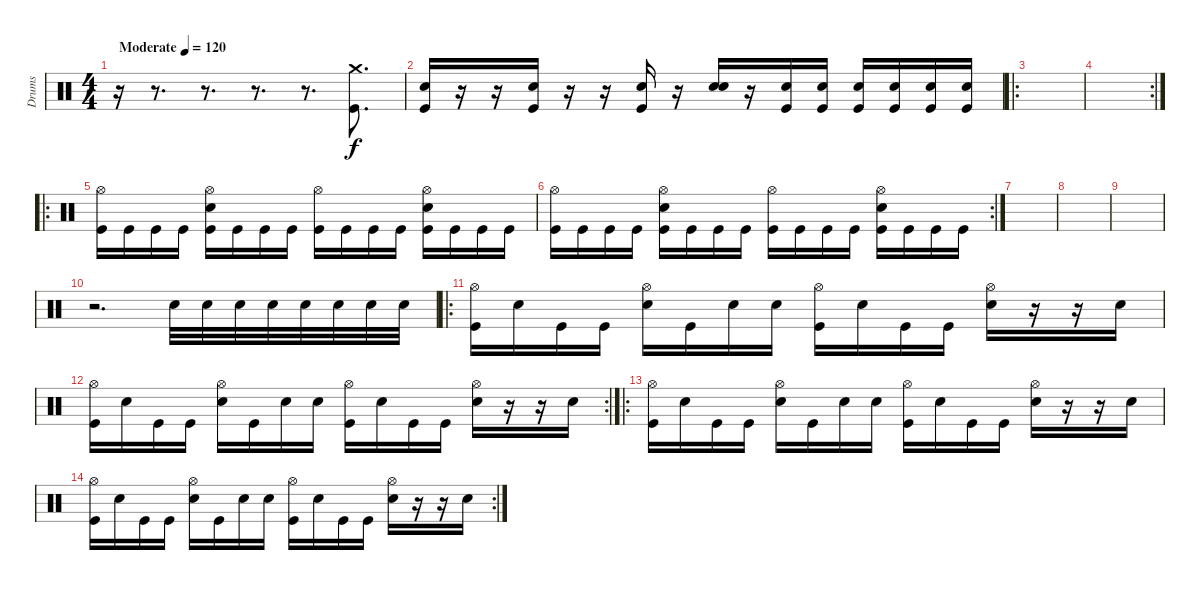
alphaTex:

\track ("Drums" "Drums") {instrument percussion}
\staff {score}
\articulation defaults
\ts (4 4)
\tempo (120 "Moderate")
\clef neutral
\ks c
r.16{dy f} r.8{d} r.8{d} r.8{d} r.8{d} ("Crash medium (hit)" "Kick (hit)").8{d} |
("Snare (hit) 2" "Kick (hit)").16 r.16 r.16 ("Snare (hit) 2" "Kick (hit)").16 r.16 r.16 ("Snare (hit) 2" "Kick (hit)").16 r.16 ("Snare (hit) 2" "Snare (hit) 2").16 r.16 ("Snare (hit) 2" "Kick (hit)").16 ("Snare (hit) 2" "Kick (hit)").16 ("Snare (hit) 2" "Kick (hit)").16 ("Snare (hit) 2" "Kick (hit)").16 ("Snare (hit) 2" "Kick (hit)").16 ("Snare (hit) 2" "Kick (hit)").16 |
\ro
|
\rc 2
|
\ro
("Hi-Hat (open)" "Kick (hit)").16 "Kick (hit)".16 "Kick (hit)".16 "Kick (hit)".16 ("Hi-Hat (open)" "Snare (hit) 2" "Kick (hit)").16 "Kick (hit)".16 "Kick (hit)".16 "Kick (hit)".16 ("Hi-Hat (open)" "Kick (hit)").16 "Kick (hit)".16 "Kick (hit)".16 "Kick (hit)".16 ("Hi-Hat (open)" "Snare (hit) 2" "Kick (hit)").16 "Kick (hit)".16 "Kick (hit)".16 "Kick (hit)".16 |
\rc 2
("Hi-Hat (open)" "Kick (hit)").16 "Kick (hit)".16 "Kick (hit)".16 "Kick (hit)".16 ("Hi-Hat (open)" "Snare (hit) 2" "Kick (hit)").16 "Kick (hit)".16 "Kick (hit)".16 "Kick (hit)".16 ("Hi-Hat (open)" "Kick (hit)").16 "Kick (hit)".16 "Kick (hit)".16 "Kick (hit)".16 ("Hi-Hat (open)" "Snare (hit) 2" "Kick (hit)").16 "Kick (hit)".16 "Kick (hit)".16 "Kick (hit)".16 |
|
|
|
r.2{d} "Snare (hit) 2".32 "Snare (hit) 2".32 "Snare (hit) 2".32 "Snare (hit) 2".32 "Snare (hit) 2".32 "Snare (hit) 2".32 "Snare (hit) 2".32 "Snare (hit) 2".32 |
\ro
("Hi-Hat (open)" "Kick (hit)").16 "Snare (hit) 2".16 "Kick (hit)".16 "Kick (hit)".16 ("Hi-Hat (open)" "Snare (hit) 2").16 "Kick (hit)".16 "Snare (hit) 2".16 "Snare (hit) 2".16 ("Hi-Hat (open)" "Kick (hit)").16 "Snare (hit) 2".16 "Kick (hit)".16 "Kick (hit)".16 ("Hi-Hat (open)" "Snare (hit) 2").16 r.16 r.16 "Snare (hit) 2".16 |
\rc 2
("Hi-Hat (open)" "Kick (hit)").16 "Snare (hit) 2".16 "Kick (hit)".16 "Kick (hit)".16 ("Hi-Hat (open)" "Snare (hit) 2").16 "Kick (hit)".16 "Snare (hit) 2".16 "Snare (hit) 2".16 ("Hi-Hat (open)" "Kick (hit)").16 "Snare (hit) 2".16 "Kick (hit)".16 "Kick (hit)".16 ("Hi-Hat (open)" "Snare (hit) 2").16 r.16 r.16 "Snare (hit) 2".16 |
\ro
("Hi-Hat (open)" "Kick (hit)").16 "Snare (hit) 2".16 "Kick (hit)".16 "Kick (hit)".16 ("Hi-Hat (open)" "Snare (hit) 2").16 "Kick (hit)".16 "Snare (hit) 2".16 "Snare (hit) 2".16 ("Hi-Hat (open)" "Kick (hit)").16 "Snare (hit) 2".16 "Kick (hit)".16 "Kick (hit)".16 ("Hi-Hat (open)" "Snare (hit) 2").16 r.16 r.16 "Snare (hit) 2".16 |
\rc 2
("Hi-Hat (open)" "Kick (hit)").16 "Snare (hit) 2".16 "Kick (hit)".16 "Kick (hit)".16 ("Hi-Hat (open)" "Snare (hit) 2").16 "Kick (hit)".16 "Snare (hit) 2".16 "Snare (hit) 2".16 ("Hi-Hat (open)" "Kick (hit)").16 "Snare (hit) 2".16 "Kick (hit)".16 "Kick (hit)".16 ("Hi-Hat (open)" "Snare (hit) 2").16 r.16 r.16 "Snare (hit) 2".16
